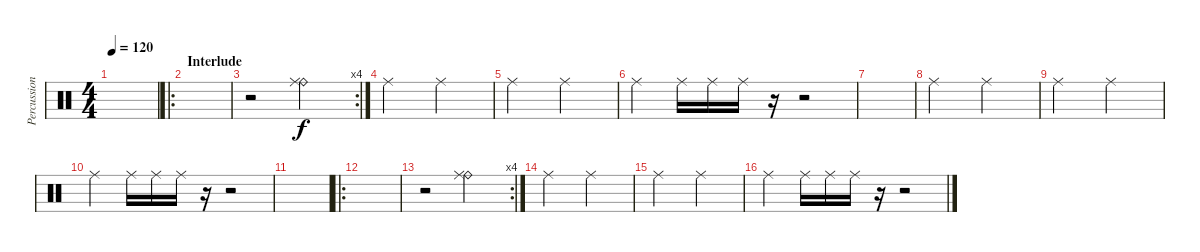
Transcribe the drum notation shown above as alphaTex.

\track ("Percussion" "Percussion") {instrument percussion}
\staff {score}
\articulation defaults
\ts (4 4)
\tempo 120
\clef neutral
\ks c
|
\ro
\section ("" "Interlude")
|
\rc 4
r.2 ("Ride (bell)" "Ride (middle)").2 |
"Ride (middle)".2 "Ride (middle)".2 |
"Ride (middle)".2 "Ride (middle)".2 |
"Ride (middle)".4 "Ride (middle)".16 "Ride (middle)".16 "Ride (middle)".16 r.16 r.2 |
|
"Ride (middle)".2 "Ride (middle)".2 |
"Ride (middle)".2 "Ride (middle)".2 |
"Ride (middle)".4 "Ride (middle)".16 "Ride (middle)".16 "Ride (middle)".16 r.16 r.2 |
|
\ro
|
\rc 4
r.2 ("Ride (bell)" "Ride (middle)").2 |
"Ride (middle)".2 "Ride (middle)".2 |
"Ride (middle)".2 "Ride (middle)".2 |
"Ride (middle)".4 "Ride (middle)".16 "Ride (middle)".16 "Ride (middle)".16 r.16 r.2
